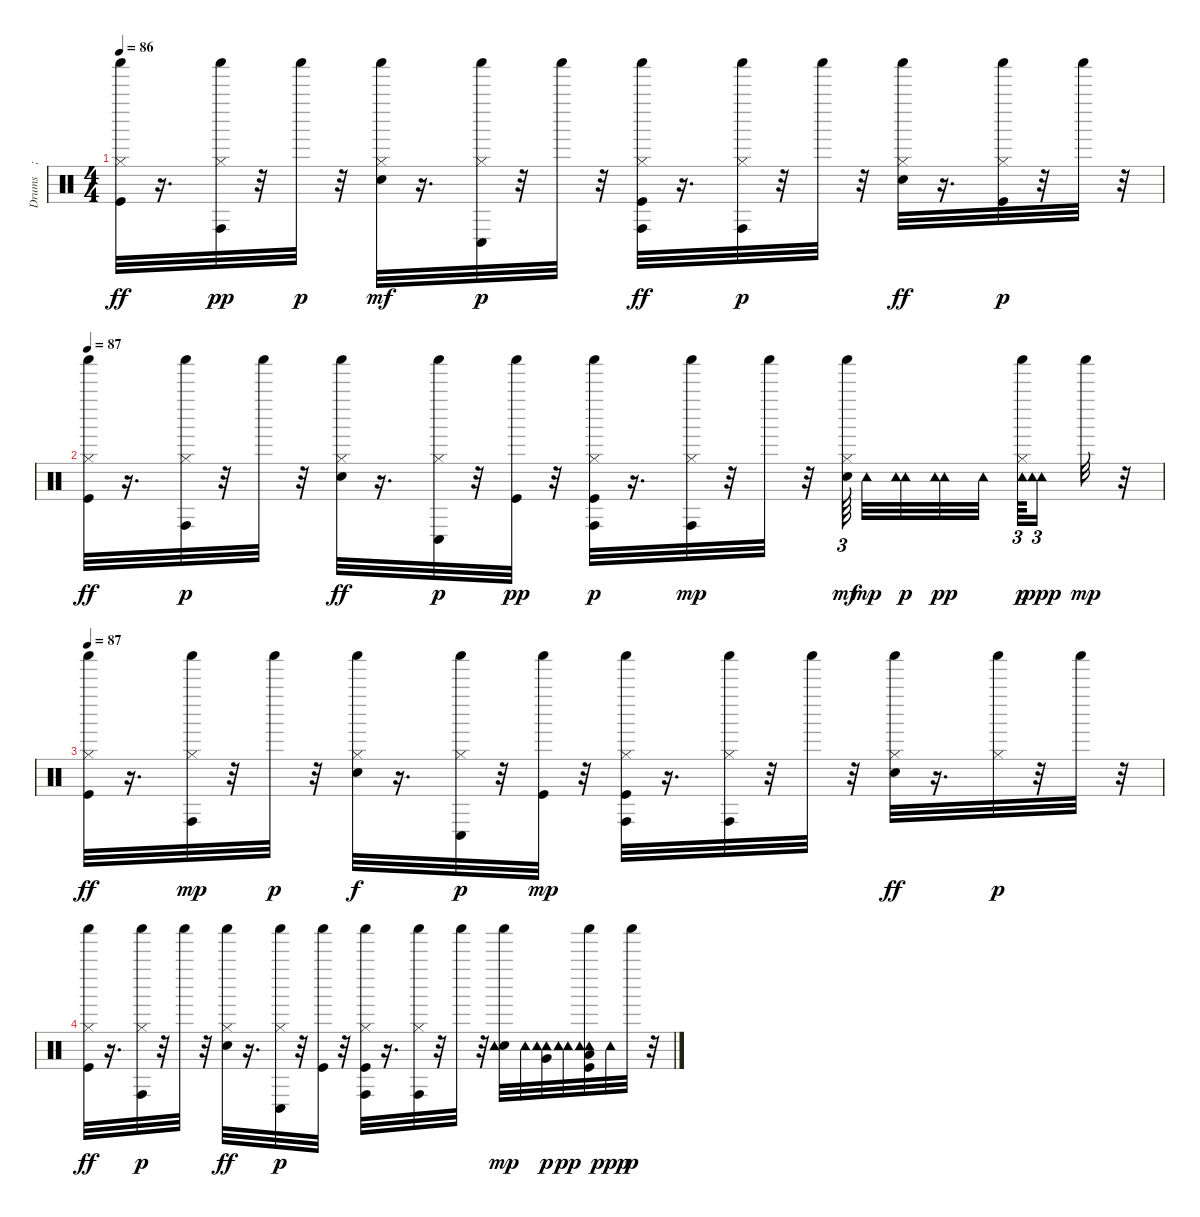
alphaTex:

\track ("Drums    ; Standard" "Drums    ;") {instrument percussion}
\staff {score}
\articulation defaults
\ts (4 4)
\tempo 86
\clef neutral
\ks c
("Shaker (hit)" "Kick (hit)" "Hi-Hat (closed)").32{dy ff} r.16{d} ("Hi-Hat (closed)" "Conga high (hit)" "Shaker (hit)").32{dy pp} r.32 "Shaker (hit)".32{dy p} r.32 ("Electric Snare (hit)" "Shaker (hit)" "Hi-Hat (closed)").32{dy mf} r.16{d} ("Conga low (hit)" "Shaker (hit)" "Hi-Hat (closed)").32{dy p} r.32 "Shaker (hit)".32 r.32 ("Conga high (hit)" "Kick (hit)" "Shaker (hit)" "Hi-Hat (closed)").32{dy ff} r.16{d} ("Conga high (hit)" "Shaker (hit)" "Hi-Hat (closed)").32{dy p} r.32 "Shaker (hit)".32 r.32 ("Electric Snare (hit)" "Shaker (hit)" "Hi-Hat (closed)").32{dy ff} r.16{d} ("Kick (hit)" "Shaker (hit)" "Hi-Hat (closed)").32{dy p} r.32 "Shaker (hit)".32 r.32 |
\tempo 87
("Kick (hit)" "Shaker (hit)" "Hi-Hat (closed)").32{dy ff} r.16{d} ("Shaker (hit)" "Conga high (hit)" "Hi-Hat (closed)").32{dy p} r.32 "Shaker (hit)".32 r.32 ("Electric Snare (hit)" "Shaker (hit)" "Hi-Hat (closed)").32{dy ff} r.16{d} ("Conga low (hit)" "Shaker (hit)" "Hi-Hat (closed)").32{dy p} r.32 ("Shaker (hit)" "Kick (hit)").32{dy pp} r.32 ("Kick (hit)" "Shaker (hit)" "Conga high (hit)" "Hi-Hat (closed)").32{dy p} r.16{d} ("Shaker (hit)" "Hi-Hat (closed)" "Conga high (hit)").32{dy mp} r.32 "Shaker (hit)".32 r.32 ("Electric Snare (hit)" "Shaker (hit)" "Hi-Hat (closed)").64{tu (3 2) dy mf} "Tambourine (hit)".32{dy mp} ("Tambourine (hit)" "Tambourine (hit)").32{dy p} ("Tambourine (hit)" "Tambourine (hit)").32{dy pp} "Tambourine (hit)".32 ("Tambourine (hit)" "Hi-Hat (closed)" "Shaker (hit)").64{tu (3 2) dy p} ("Tambourine (hit)" "Tambourine (hit)").16{tu (3 2) dy ppp} "Shaker (hit)".32{dy mp} r.32 |
\tempo 87
("Kick (hit)" "Shaker (hit)" "Hi-Hat (closed)").32{dy ff} r.16{d} ("Shaker (hit)" "Conga high (hit)" "Hi-Hat (closed)").32{dy mp} r.32 "Shaker (hit)".32{dy p} r.32 ("Electric Snare (hit)" "Shaker (hit)" "Hi-Hat (closed)").32{dy f} r.16{d} ("Shaker (hit)" "Conga low (hit)" "Hi-Hat (closed)").32{dy p} r.32 ("Shaker (hit)" "Kick (hit)").32{dy mp} r.32 ("Kick (hit)" "Shaker (hit)" "Conga high (hit)" "Hi-Hat (closed)").32 r.16{d} ("Shaker (hit)" "Hi-Hat (closed)" "Conga high (hit)").32 r.32 "Shaker (hit)".32 r.32 ("Electric Snare (hit)" "Shaker (hit)" "Hi-Hat (closed)").32{dy ff} r.16{d} ("Shaker (hit)" "Hi-Hat (closed)").32{dy p} r.32 "Shaker (hit)".32 r.32 |
("Shaker (hit)" "Kick (hit)" "Hi-Hat (closed)").32{dy ff} r.16{d} ("Shaker (hit)" "Conga high (hit)" "Hi-Hat (closed)").32{dy p} r.32 "Shaker (hit)".32 r.32 ("Electric Snare (hit)" "Shaker (hit)" "Hi-Hat (closed)").32{dy ff} r.16{d} ("Shaker (hit)" "Conga low (hit)" "Hi-Hat (closed)").32{dy p} r.32 ("Shaker (hit)" "Kick (hit)").32 r.32 ("Kick (hit)" "Shaker (hit)" "Conga high (hit)" "Hi-Hat (closed)").32 r.16{d} ("Shaker (hit)" "Conga high (hit)" "Hi-Hat (closed)").32 r.32 "Shaker (hit)".32 r.32 ("Electric Snare (hit)" "Shaker (hit)" "Tambourine (hit)").32{dy mp} "Tambourine (hit)".32 ("Tambourine (hit)" "Very Low Tom (hit)" "Tambourine (hit)").32{dy p} ("Tambourine (hit)" "Tambourine (hit)").32{dy pp} ("Tambourine (hit)" "Shaker (hit)" "Kick (hit)" "Low Floor Tom (hit)" "Tambourine (hit)").32 "Tambourine (hit)".32{dy ppp} "Shaker (hit)".32{dy p} r.32
